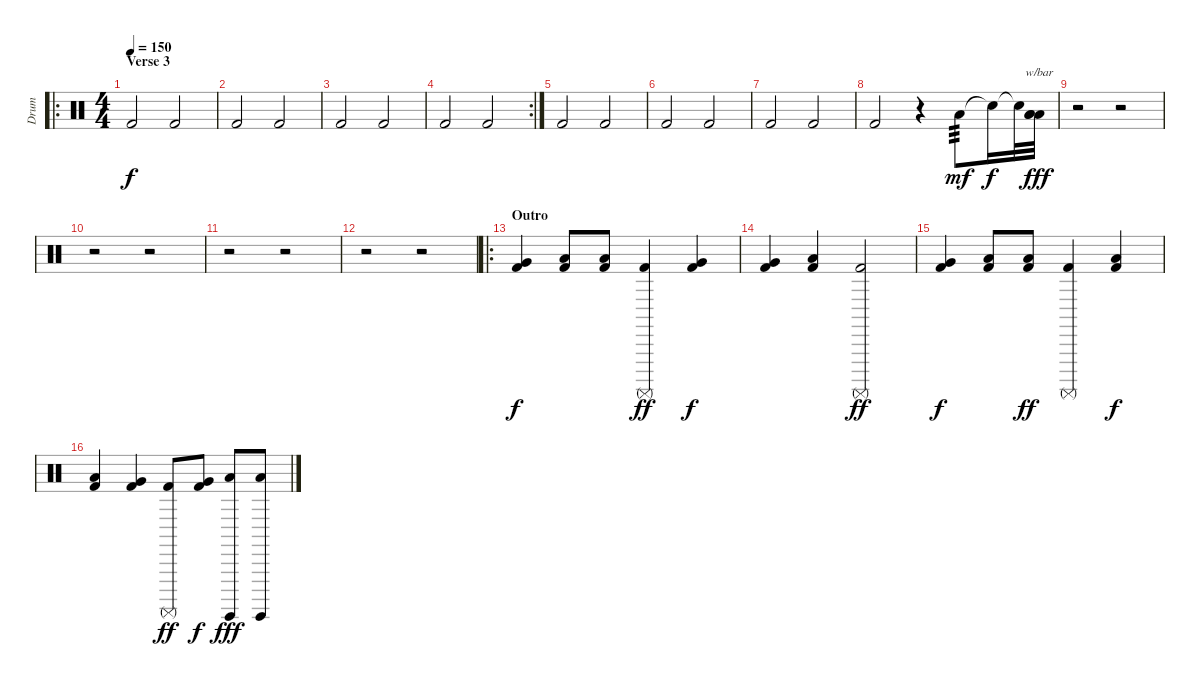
\track ("Drum" "Drum") {instrument percussion}
\staff {score}
\articulation defaults
\ro
\ts (4 4)
\section ("" "Verse 3")
\tempo 150
\clef neutral
\ks c "Kick (hit) 2".2{dy f} "Kick (hit) 2".2
|
"Kick (hit) 2".2 "Kick (hit) 2".2 |
"Kick (hit) 2".2 "Kick (hit) 2".2 |
\rc 2 "Kick (hit) 2".2 "Kick (hit) 2".2
|
"Kick (hit) 2".2 "Kick (hit) 2".2 |
"Kick (hit) 2".2 "Kick (hit) 2".2 |
"Kick (hit) 2".2 "Kick (hit) 2".2 |
"Kick (hit) 2".2 r.4 "Low Floor Tom (hit)".8{tp 3 dy mf} "Snare (hit)"{t}.16{dy f} "Snare (hit)"{t}.32 ("Low Floor Tom (hit)" "Low Floor Tom (hit)" "Low Floor Tom (hit)").32{tbe (custom default 0 -16 7 -14 30 -20 32 -22 36 -18 57 -18 60 -18) dy fff} |
r.2 r.2 |
r.2 r.2 |
r.2 r.2 |
r.2 r.2 |
\ro
\section ("" "Outro")
("Very Low Tom (hit)" "Kick (hit) 2").4{dy f} ("Low Floor Tom (hit)" "Kick (hit) 2").8 ("Low Floor Tom (hit)" "Kick (hit) 2").8 ("Surdo (mute)" "Kick (hit) 2").4{dy ff} ("Very Low Tom (hit)" "Kick (hit) 2").4{dy f} |
("Very Low Tom (hit)" "Kick (hit) 2").4 ("Low Floor Tom (hit)" "Kick (hit) 2").4 ("Surdo (mute)" "Kick (hit) 2").2{dy ff} |
("Very Low Tom (hit)" "Kick (hit) 2").4{dy f} ("Low Floor Tom (hit)" "Kick (hit) 2").8 ("Low Floor Tom (hit)" "Kick (hit) 2").8{dy ff} ("Surdo (mute)" "Kick (hit) 2").4 ("Low Floor Tom (hit)" "Kick (hit) 2").4{dy f} |
("Low Tom (hit)" "Kick (hit) 2").4 ("Very Low Tom (hit)" "Kick (hit) 2").4 ("Surdo (mute)" "Kick (hit) 2").8{dy ff} ("Very Low Tom (hit)" "Kick (hit) 2").8{dy f} ("Surdo (hit)" "Low Floor Tom (hit)").8{dy fff} ("Surdo (hit)" "Low Floor Tom (hit)").8
